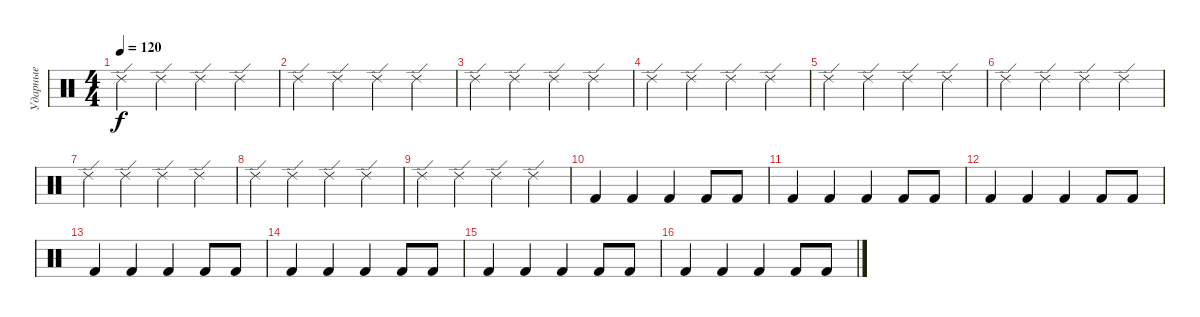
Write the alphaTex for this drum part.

\track ("Ударные" "Ударные") {instrument percussion}
\staff {score}
\articulation defaults
\ts (4 4)
\tempo 120
\clef neutral
\ks c "Ride (edge) 2".4{dy f} "Ride (edge) 2".4 "Ride (edge) 2".4 "Ride (edge) 2".4
|
"Ride (edge) 2".4 "Ride (edge) 2".4 "Ride (edge) 2".4 "Ride (edge) 2".4 |
"Ride (edge) 2".4 "Ride (edge) 2".4 "Ride (edge) 2".4 "Ride (edge) 2".4 |
"Ride (edge) 2".4 "Ride (edge) 2".4 "Ride (edge) 2".4 "Ride (edge) 2".4 |
"Ride (edge) 2".4 "Ride (edge) 2".4 "Ride (edge) 2".4 "Ride (edge) 2".4 |
"Ride (edge) 2".4 "Ride (edge) 2".4 "Ride (edge) 2".4 "Ride (edge) 2".4 |
"Ride (edge) 2".4 "Ride (edge) 2".4 "Ride (edge) 2".4 "Ride (edge) 2".4 |
"Ride (edge) 2".4 "Ride (edge) 2".4 "Ride (edge) 2".4 "Ride (edge) 2".4 |
"Ride (edge) 2".4 "Ride (edge) 2".4 "Ride (edge) 2".4 "Ride (edge) 2".4 |
"Kick (hit) 2".4 "Kick (hit) 2".4 "Kick (hit) 2".4 "Kick (hit) 2".8 "Kick (hit) 2".8 |
"Kick (hit) 2".4 "Kick (hit) 2".4 "Kick (hit) 2".4 "Kick (hit) 2".8 "Kick (hit) 2".8 |
"Kick (hit) 2".4 "Kick (hit) 2".4 "Kick (hit) 2".4 "Kick (hit) 2".8 "Kick (hit) 2".8 |
"Kick (hit) 2".4 "Kick (hit) 2".4 "Kick (hit) 2".4 "Kick (hit) 2".8 "Kick (hit) 2".8 |
"Kick (hit) 2".4 "Kick (hit) 2".4 "Kick (hit) 2".4 "Kick (hit) 2".8 "Kick (hit) 2".8 |
"Kick (hit) 2".4 "Kick (hit) 2".4 "Kick (hit) 2".4 "Kick (hit) 2".8 "Kick (hit) 2".8 |
"Kick (hit) 2".4 "Kick (hit) 2".4 "Kick (hit) 2".4 "Kick (hit) 2".8 "Kick (hit) 2".8
